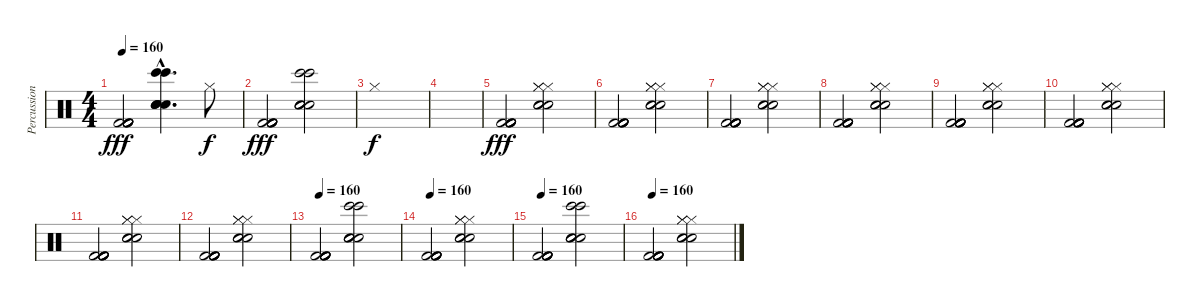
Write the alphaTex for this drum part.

\track ("Percussion" "Percussion") {instrument percussion}
\staff {score}
\articulation defaults
\ts (4 4)
\tempo 160
\clef neutral
\ks c
("Kick (hit) 2" "Kick (hit) 2" "Kick (hit) 2" "Kick (hit) 2" "Kick (hit) 2" "Kick (hit) 2").2{dy fff} ("Hand Clap (hit)"{hac} "Hand Clap (hit)"{hac} "Electric Snare (hit)"{hac} "Hand Clap (hit)"{hac} "Bongo High (hit)"{hac} "Bongo High (hit)"{hac}).4{d} "Hi-Hat (closed)".8{dy f} |
("Kick (hit) 2" "Kick (hit) 2" "Kick (hit) 2" "Kick (hit) 2" "Kick (hit) 2" "Kick (hit) 2").2{dy fff} ("Hand Clap (hit)" "Hand Clap (hit)" "Electric Snare (hit)" "Hand Clap (hit)" "Bongo High (hit)" "Bongo High (hit)").2 |
"Hi-Hat (closed)".1{dy f} |
|
("Kick (hit) 2" "Kick (hit) 2" "Kick (hit) 2" "Kick (hit) 2" "Kick (hit) 2" "Kick (hit) 2").2{dy fff} ("Snare (hit) 2" "Snare (hit) 2" "Snare (hit) 2" "Hi-Hat (closed)" "Hi-Hat (closed)" "Hi-Hat (closed)").2 |
("Kick (hit) 2" "Kick (hit) 2" "Kick (hit) 2" "Kick (hit) 2" "Kick (hit) 2" "Kick (hit) 2").2 ("Snare (hit) 2" "Snare (hit) 2" "Snare (hit) 2" "Hi-Hat (closed)" "Hi-Hat (closed)" "Hi-Hat (closed)").2 |
("Kick (hit) 2" "Kick (hit) 2" "Kick (hit) 2" "Kick (hit) 2" "Kick (hit) 2" "Kick (hit) 2").2 ("Snare (hit) 2" "Snare (hit) 2" "Snare (hit) 2" "Hi-Hat (closed)" "Hi-Hat (closed)" "Hi-Hat (closed)").2 |
("Kick (hit) 2" "Kick (hit) 2" "Kick (hit) 2" "Kick (hit) 2" "Kick (hit) 2" "Kick (hit) 2").2 ("Snare (hit) 2" "Snare (hit) 2" "Snare (hit) 2" "Hi-Hat (closed)" "Hi-Hat (closed)" "Hi-Hat (closed)").2 |
("Kick (hit) 2" "Kick (hit) 2" "Kick (hit) 2" "Kick (hit) 2" "Kick (hit) 2" "Kick (hit) 2").2 ("Snare (hit) 2" "Snare (hit) 2" "Snare (hit) 2" "Hi-Hat (closed)" "Hi-Hat (closed)" "Hi-Hat (closed)").2 |
("Kick (hit) 2" "Kick (hit) 2" "Kick (hit) 2" "Kick (hit) 2" "Kick (hit) 2" "Kick (hit) 2").2 ("Snare (hit) 2" "Snare (hit) 2" "Snare (hit) 2" "Hi-Hat (closed)" "Hi-Hat (closed)" "Hi-Hat (closed)").2 |
("Kick (hit) 2" "Kick (hit) 2" "Kick (hit) 2" "Kick (hit) 2" "Kick (hit) 2" "Kick (hit) 2").2 ("Snare (hit) 2" "Snare (hit) 2" "Snare (hit) 2" "Hi-Hat (closed)" "Hi-Hat (closed)" "Hi-Hat (closed)").2 |
("Kick (hit) 2" "Kick (hit) 2" "Kick (hit) 2" "Kick (hit) 2" "Kick (hit) 2" "Kick (hit) 2").2 ("Snare (hit) 2" "Snare (hit) 2" "Snare (hit) 2" "Hi-Hat (closed)" "Hi-Hat (closed)" "Hi-Hat (closed)").2 |
\tempo 160
("Kick (hit) 2" "Kick (hit) 2" "Kick (hit) 2" "Kick (hit) 2" "Kick (hit) 2" "Kick (hit) 2").2 ("Hand Clap (hit)" "Hand Clap (hit)" "Electric Snare (hit)" "Hand Clap (hit)" "Bongo High (hit)" "Bongo High (hit)").2 |
\tempo 160
("Kick (hit) 2" "Kick (hit) 2" "Kick (hit) 2" "Kick (hit) 2" "Kick (hit) 2" "Kick (hit) 2").2 ("Snare (hit) 2" "Snare (hit) 2" "Snare (hit) 2" "Hi-Hat (closed)" "Hi-Hat (closed)" "Hi-Hat (closed)").2 |
\tempo 160
("Kick (hit) 2" "Kick (hit) 2" "Kick (hit) 2" "Kick (hit) 2" "Kick (hit) 2" "Kick (hit) 2").2 ("Hand Clap (hit)" "Hand Clap (hit)" "Electric Snare (hit)" "Hand Clap (hit)" "Bongo High (hit)" "Bongo High (hit)").2 |
\tempo 160
("Kick (hit) 2" "Kick (hit) 2" "Kick (hit) 2" "Kick (hit) 2" "Kick (hit) 2" "Kick (hit) 2").2 ("Snare (hit) 2" "Snare (hit) 2" "Snare (hit) 2" "Hi-Hat (closed)" "Hi-Hat (closed)" "Hi-Hat (closed)").2
